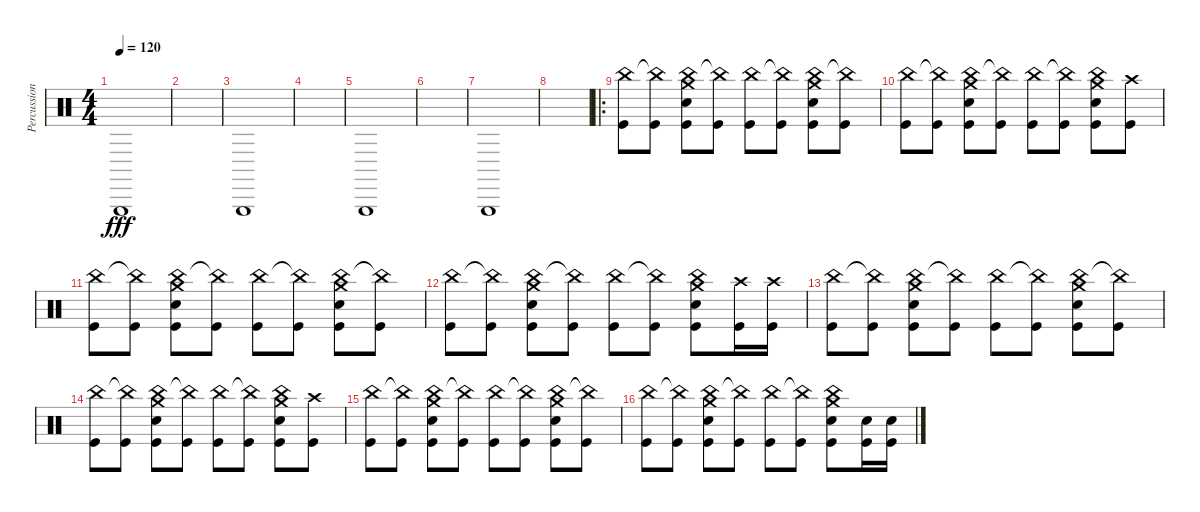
\track ("Percussions" "Percussion") {instrument percussion}
\staff {score}
\articulation defaults
\ts (4 4)
\tempo 120
\clef neutral
\ks c "Triangle (hit)".1{dy fff}
|
|
"Triangle (hit)".1 |
|
"Triangle (hit)".1 |
|
"Triangle (hit)".1 |
|
\ro
("China (hit)" "Kick (hit)").8 ("China (hit)"{t} "Kick (hit)").8 ("China (hit)" "Crash medium (hit)" "Snare (hit) 2" "Kick (hit)").8 ("China (hit)"{t} "Kick (hit)").8 ("China (hit)" "Kick (hit)").8 ("China (hit)"{t} "Kick (hit)").8 ("China (hit)" "Crash medium (hit)" "Snare (hit) 2" "Kick (hit)").8 ("China (hit)"{t} "Kick (hit)").8 |
("China (hit)" "Kick (hit)").8 ("China (hit)"{t} "Kick (hit)").8 ("China (hit)" "Crash medium (hit)" "Snare (hit) 2" "Kick (hit)").8 ("China (hit)"{t} "Kick (hit)").8 ("China (hit)" "Kick (hit)").8 ("China (hit)"{t} "Kick (hit)").8 ("China (hit)" "Crash medium (hit)" "Snare (hit) 2" "Kick (hit)").8 ("Crash high (hit)" "Kick (hit)").8 |
("China (hit)" "Kick (hit)").8 ("China (hit)"{t} "Kick (hit)").8 ("China (hit)" "Crash medium (hit)" "Snare (hit) 2" "Kick (hit)").8 ("China (hit)"{t} "Kick (hit)").8 ("China (hit)" "Kick (hit)").8 ("China (hit)"{t} "Kick (hit)").8 ("China (hit)" "Crash medium (hit)" "Snare (hit) 2" "Kick (hit)").8 ("China (hit)"{t} "Kick (hit)").8 |
("China (hit)" "Kick (hit)").8 ("China (hit)"{t} "Kick (hit)").8 ("China (hit)" "Crash medium (hit)" "Snare (hit) 2" "Kick (hit)").8 ("China (hit)"{t} "Kick (hit)").8 ("China (hit)" "Kick (hit)").8 ("China (hit)"{t} "Kick (hit)").8 ("China (hit)" "Crash medium (hit)" "Snare (hit) 2" "Kick (hit)").8 ("Crash high (hit)" "Kick (hit)").16 ("Crash high (hit)" "Kick (hit)").16 |
("China (hit)" "Kick (hit)").8 ("China (hit)"{t} "Kick (hit)").8 ("China (hit)" "Crash medium (hit)" "Snare (hit) 2" "Kick (hit)").8 ("China (hit)"{t} "Kick (hit)").8 ("China (hit)" "Kick (hit)").8 ("China (hit)"{t} "Kick (hit)").8 ("China (hit)" "Crash medium (hit)" "Snare (hit) 2" "Kick (hit)").8 ("China (hit)"{t} "Kick (hit)").8 |
("China (hit)" "Kick (hit)").8 ("China (hit)"{t} "Kick (hit)").8 ("China (hit)" "Crash medium (hit)" "Snare (hit) 2" "Kick (hit)").8 ("China (hit)"{t} "Kick (hit)").8 ("China (hit)" "Kick (hit)").8 ("China (hit)"{t} "Kick (hit)").8 ("China (hit)" "Crash medium (hit)" "Snare (hit) 2" "Kick (hit)").8 ("Crash high (hit)" "Kick (hit)").8 |
("China (hit)" "Kick (hit)").8 ("China (hit)"{t} "Kick (hit)").8 ("China (hit)" "Crash medium (hit)" "Snare (hit) 2" "Kick (hit)").8 ("China (hit)"{t} "Kick (hit)").8 ("China (hit)" "Kick (hit)").8 ("China (hit)"{t} "Kick (hit)").8 ("China (hit)" "Crash medium (hit)" "Snare (hit) 2" "Kick (hit)").8 ("China (hit)"{t} "Kick (hit)").8 |
("China (hit)" "Kick (hit)").8 ("China (hit)"{t} "Kick (hit)").8 ("China (hit)" "Crash medium (hit)" "Snare (hit) 2" "Kick (hit)").8 ("China (hit)"{t} "Kick (hit)").8 ("China (hit)" "Kick (hit)").8 ("China (hit)"{t} "Kick (hit)").8 ("China (hit)" "Crash medium (hit)" "Snare (hit) 2" "Kick (hit)").8 ("Snare (hit) 2" "Kick (hit)").16 ("Snare (hit) 2" "Kick (hit)").16
